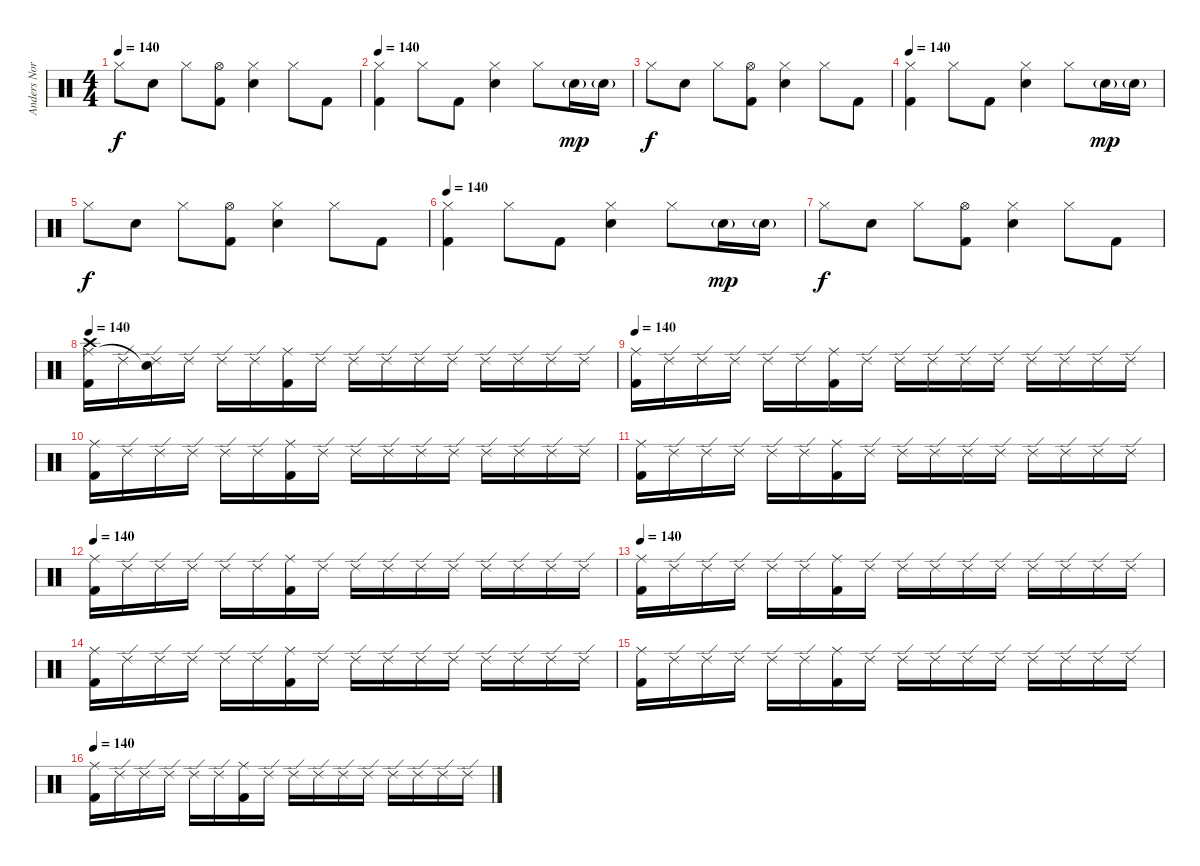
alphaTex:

\track ("Anders Nordin" "Anders Nor") {instrument percussion}
\staff {score}
\articulation defaults
\ts (4 4)
\tempo 140
\clef neutral
\ks c "Hi-Hat (closed)".8{dy f} "Electric Snare (hit)".8 "Hi-Hat (closed)".8
("Kick (hit) 2" "Hi-Hat (open)").8 ("Electric Snare (hit)" "Hi-Hat (closed)").4 "Hi-Hat (closed)".8 "Kick (hit) 2".8 |
\tempo 140
("Kick (hit) 2" "Hi-Hat (closed)").4{volume 10} "Hi-Hat (closed)".8 "Kick (hit) 2".8 ("Electric Snare (hit)" "Hi-Hat (closed)").4 "Hi-Hat (closed)".8 "Electric Snare (hit)"{g}.16{dy mp} "Electric Snare (hit)"{g}.16 |
"Hi-Hat (closed)".8{dy f} "Electric Snare (hit)".8 "Hi-Hat (closed)".8 ("Kick (hit) 2" "Hi-Hat (open)").8 ("Electric Snare (hit)" "Hi-Hat (closed)").4 "Hi-Hat (closed)".8 "Kick (hit) 2".8 |
\tempo 140
("Kick (hit) 2" "Hi-Hat (closed)").4{volume 10} "Hi-Hat (closed)".8 "Kick (hit) 2".8 ("Electric Snare (hit)" "Hi-Hat (closed)").4 "Hi-Hat (closed)".8 "Electric Snare (hit)"{g}.16{dy mp} "Electric Snare (hit)"{g}.16 |
"Hi-Hat (closed)".8{dy f} "Electric Snare (hit)".8 "Hi-Hat (closed)".8 ("Kick (hit) 2" "Hi-Hat (open)").8 ("Electric Snare (hit)" "Hi-Hat (closed)").4 "Hi-Hat (closed)".8 "Kick (hit) 2".8 |
\tempo 140
("Kick (hit) 2" "Hi-Hat (closed)").4{volume 10} "Hi-Hat (closed)".8 "Kick (hit) 2".8 ("Electric Snare (hit)" "Hi-Hat (closed)").4 "Hi-Hat (closed)".8 "Electric Snare (hit)"{g}.16{dy mp} "Electric Snare (hit)"{g}.16 |
"Hi-Hat (closed)".8{dy f} "Electric Snare (hit)".8 "Hi-Hat (closed)".8 ("Kick (hit) 2" "Hi-Hat (open)").8 ("Electric Snare (hit)" "Hi-Hat (closed)").4 "Hi-Hat (closed)".8 "Kick (hit) 2".8 |
\tempo 140
("Kick (hit) 2" "Ride (middle)" "Crash high (hit)").16{volume 9} "Ride (edge) 2".16 ("Ride (edge) 2" "Snare (hit)"{t}).16 "Ride (edge) 2".16 "Ride (edge) 2".16 "Ride (edge) 2".16 ("Kick (hit) 2" "Ride (middle)").16 "Ride (edge) 2".16 "Ride (edge) 2".16 "Ride (edge) 2".16 "Ride (edge) 2".16 "Ride (edge) 2".16 "Ride (edge) 2".16 "Ride (edge) 2".16 "Ride (edge) 2".16 "Ride (edge) 2".16 |
\tempo 140
("Kick (hit) 2" "Ride (middle)").16{volume 9} "Ride (edge) 2".16 "Ride (edge) 2".16 "Ride (edge) 2".16 "Ride (edge) 2".16 "Ride (edge) 2".16 ("Kick (hit) 2" "Ride (middle)").16 "Ride (edge) 2".16 "Ride (edge) 2".16 "Ride (edge) 2".16 "Ride (edge) 2".16 "Ride (edge) 2".16 "Ride (edge) 2".16 "Ride (edge) 2".16 "Ride (edge) 2".16 "Ride (edge) 2".16 |
("Kick (hit) 2" "Ride (middle)").16{volume 9} "Ride (edge) 2".16 "Ride (edge) 2".16 "Ride (edge) 2".16 "Ride (edge) 2".16 "Ride (edge) 2".16 ("Kick (hit) 2" "Ride (middle)").16 "Ride (edge) 2".16 "Ride (edge) 2".16 "Ride (edge) 2".16 "Ride (edge) 2".16 "Ride (edge) 2".16 "Ride (edge) 2".16 "Ride (edge) 2".16 "Ride (edge) 2".16 "Ride (edge) 2".16 |
("Kick (hit) 2" "Ride (middle)").16{volume 9} "Ride (edge) 2".16 "Ride (edge) 2".16 "Ride (edge) 2".16 "Ride (edge) 2".16 "Ride (edge) 2".16 ("Kick (hit) 2" "Ride (middle)").16 "Ride (edge) 2".16 "Ride (edge) 2".16 "Ride (edge) 2".16 "Ride (edge) 2".16 "Ride (edge) 2".16 "Ride (edge) 2".16 "Ride (edge) 2".16 "Ride (edge) 2".16 "Ride (edge) 2".16 |
\tempo 140
("Kick (hit) 2" "Ride (middle)").16{volume 9} "Ride (edge) 2".16 "Ride (edge) 2".16 "Ride (edge) 2".16 "Ride (edge) 2".16 "Ride (edge) 2".16 ("Kick (hit) 2" "Ride (middle)").16 "Ride (edge) 2".16 "Ride (edge) 2".16 "Ride (edge) 2".16 "Ride (edge) 2".16 "Ride (edge) 2".16 "Ride (edge) 2".16 "Ride (edge) 2".16 "Ride (edge) 2".16 "Ride (edge) 2".16 |
\tempo 140
("Kick (hit) 2" "Ride (middle)").16{volume 9} "Ride (edge) 2".16 "Ride (edge) 2".16 "Ride (edge) 2".16 "Ride (edge) 2".16 "Ride (edge) 2".16 ("Kick (hit) 2" "Ride (middle)").16 "Ride (edge) 2".16 "Ride (edge) 2".16 "Ride (edge) 2".16 "Ride (edge) 2".16 "Ride (edge) 2".16 "Ride (edge) 2".16 "Ride (edge) 2".16 "Ride (edge) 2".16 "Ride (edge) 2".16 |
("Kick (hit) 2" "Ride (middle)").16{volume 9} "Ride (edge) 2".16 "Ride (edge) 2".16 "Ride (edge) 2".16 "Ride (edge) 2".16 "Ride (edge) 2".16 ("Kick (hit) 2" "Ride (middle)").16 "Ride (edge) 2".16 "Ride (edge) 2".16 "Ride (edge) 2".16 "Ride (edge) 2".16 "Ride (edge) 2".16 "Ride (edge) 2".16 "Ride (edge) 2".16 "Ride (edge) 2".16 "Ride (edge) 2".16 |
("Kick (hit) 2" "Ride (middle)").16{volume 9} "Ride (edge) 2".16 "Ride (edge) 2".16 "Ride (edge) 2".16 "Ride (edge) 2".16 "Ride (edge) 2".16 ("Kick (hit) 2" "Ride (middle)").16 "Ride (edge) 2".16 "Ride (edge) 2".16 "Ride (edge) 2".16 "Ride (edge) 2".16 "Ride (edge) 2".16 "Ride (edge) 2".16 "Ride (edge) 2".16 "Ride (edge) 2".16 "Ride (edge) 2".16 |
\tempo 140
("Kick (hit) 2" "Ride (middle)").16{volume 9} "Ride (edge) 2".16 "Ride (edge) 2".16 "Ride (edge) 2".16 "Ride (edge) 2".16 "Ride (edge) 2".16 ("Kick (hit) 2" "Ride (middle)").16 "Ride (edge) 2".16 "Ride (edge) 2".16 "Ride (edge) 2".16 "Ride (edge) 2".16 "Ride (edge) 2".16 "Ride (edge) 2".16 "Ride (edge) 2".16 "Ride (edge) 2".16 "Ride (edge) 2".16
